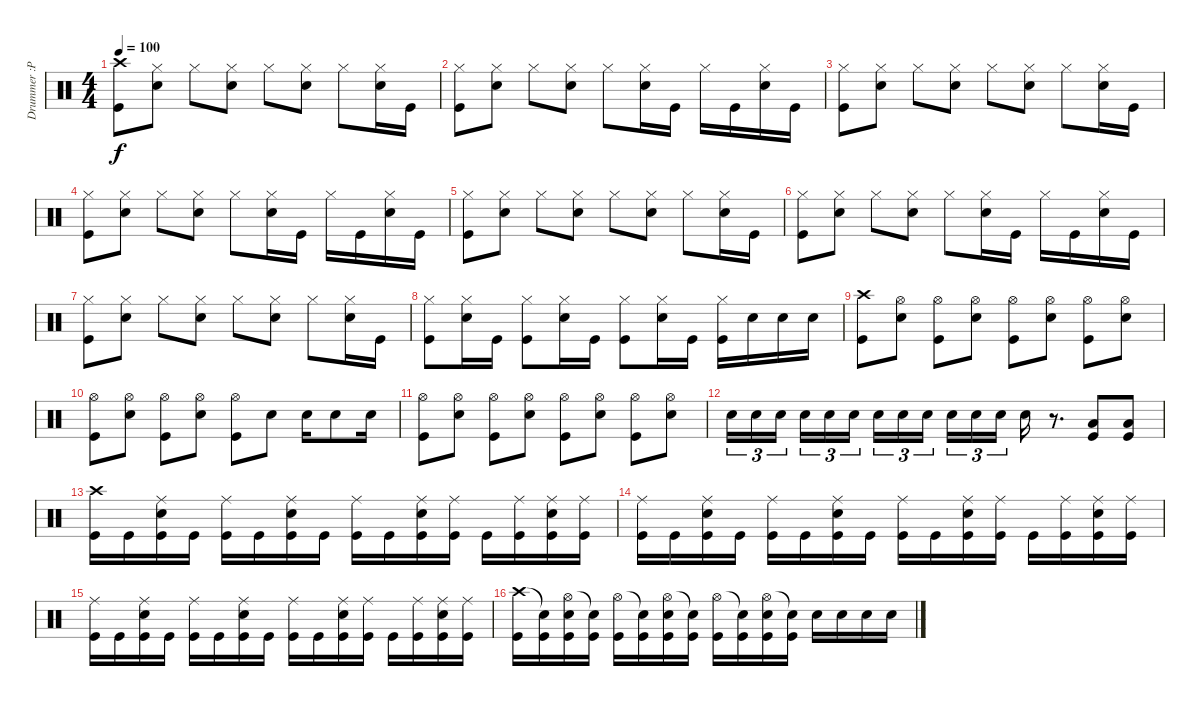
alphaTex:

\track ("Drummer :P" "Drummer :P") {instrument percussion}
\staff {score}
\articulation defaults
\ts (4 4)
\tempo 100
\clef neutral
\ks c
("Crash high (hit)" "Kick (hit)").8{dy f} ("Hi-Hat (closed)" "Electric Snare (hit)").8 "Hi-Hat (closed)".8 ("Hi-Hat (closed)" "Electric Snare (hit)").8 "Hi-Hat (closed)".8 ("Hi-Hat (closed)" "Electric Snare (hit)").8 "Hi-Hat (closed)".8 ("Hi-Hat (closed)" "Electric Snare (hit)").16 "Kick (hit)".16 |
("Hi-Hat (closed)" "Kick (hit)").8 ("Hi-Hat (closed)" "Electric Snare (hit)").8 "Hi-Hat (closed)".8 ("Hi-Hat (closed)" "Electric Snare (hit)").8 "Hi-Hat (closed)".8 ("Hi-Hat (closed)" "Electric Snare (hit)").16 "Kick (hit)".16 "Hi-Hat (closed)".16 "Kick (hit)".16 ("Hi-Hat (closed)" "Electric Snare (hit)").16 "Kick (hit)".16 |
("Hi-Hat (closed)" "Kick (hit)").8 ("Hi-Hat (closed)" "Electric Snare (hit)").8 "Hi-Hat (closed)".8 ("Hi-Hat (closed)" "Electric Snare (hit)").8 "Hi-Hat (closed)".8 ("Hi-Hat (closed)" "Electric Snare (hit)").8 "Hi-Hat (closed)".8 ("Hi-Hat (closed)" "Electric Snare (hit)").16 "Kick (hit)".16 |
("Hi-Hat (closed)" "Kick (hit)").8 ("Hi-Hat (closed)" "Electric Snare (hit)").8 "Hi-Hat (closed)".8 ("Hi-Hat (closed)" "Electric Snare (hit)").8 "Hi-Hat (closed)".8 ("Hi-Hat (closed)" "Electric Snare (hit)").16 "Kick (hit)".16 "Hi-Hat (closed)".16 "Kick (hit)".16 ("Hi-Hat (closed)" "Electric Snare (hit)").16 "Kick (hit)".16 |
("Hi-Hat (closed)" "Kick (hit)").8 ("Hi-Hat (closed)" "Electric Snare (hit)").8 "Hi-Hat (closed)".8 ("Hi-Hat (closed)" "Electric Snare (hit)").8 "Hi-Hat (closed)".8 ("Hi-Hat (closed)" "Electric Snare (hit)").8 "Hi-Hat (closed)".8 ("Hi-Hat (closed)" "Electric Snare (hit)").16 "Kick (hit)".16 |
("Hi-Hat (closed)" "Kick (hit)").8 ("Hi-Hat (closed)" "Electric Snare (hit)").8 "Hi-Hat (closed)".8 ("Hi-Hat (closed)" "Electric Snare (hit)").8 "Hi-Hat (closed)".8 ("Hi-Hat (closed)" "Electric Snare (hit)").16 "Kick (hit)".16 "Hi-Hat (closed)".16 "Kick (hit)".16 ("Hi-Hat (closed)" "Electric Snare (hit)").16 "Kick (hit)".16 |
("Hi-Hat (closed)" "Kick (hit)").8 ("Hi-Hat (closed)" "Electric Snare (hit)").8 "Hi-Hat (closed)".8 ("Hi-Hat (closed)" "Electric Snare (hit)").8 "Hi-Hat (closed)".8 ("Hi-Hat (closed)" "Electric Snare (hit)").8 "Hi-Hat (closed)".8 ("Hi-Hat (closed)" "Electric Snare (hit)").16 "Kick (hit)".16 |
("Hi-Hat (closed)" "Kick (hit)").8 ("Hi-Hat (closed)" "Electric Snare (hit)").16 "Kick (hit)".16 ("Hi-Hat (closed)" "Kick (hit)").8 ("Hi-Hat (closed)" "Electric Snare (hit)").16 "Kick (hit)".16 ("Hi-Hat (closed)" "Kick (hit)").8 ("Hi-Hat (closed)" "Electric Snare (hit)").16 "Kick (hit)".16 ("Hi-Hat (closed)" "Kick (hit)").16 "Electric Snare (hit)".16 "Electric Snare (hit)".16 "Electric Snare (hit)".16 |
("Crash high (hit)" "Kick (hit)").8 ("Hi-Hat (open)" "Electric Snare (hit)").8 ("Hi-Hat (open)" "Kick (hit)").8 ("Hi-Hat (open)" "Electric Snare (hit)").8 ("Hi-Hat (open)" "Kick (hit)").8 ("Hi-Hat (open)" "Electric Snare (hit)").8 ("Hi-Hat (open)" "Kick (hit)").8 ("Hi-Hat (open)" "Electric Snare (hit)").8 |
("Hi-Hat (open)" "Kick (hit)").8 ("Hi-Hat (open)" "Electric Snare (hit)").8 ("Hi-Hat (open)" "Kick (hit)").8 ("Hi-Hat (open)" "Electric Snare (hit)").8 ("Hi-Hat (open)" "Kick (hit)").8 "Electric Snare (hit)".8 "Electric Snare (hit)".16 "Electric Snare (hit)".8 "Electric Snare (hit)".16 |
("Hi-Hat (open)" "Kick (hit)").8 ("Hi-Hat (open)" "Electric Snare (hit)").8 ("Hi-Hat (open)" "Kick (hit)").8 ("Hi-Hat (open)" "Electric Snare (hit)").8 ("Hi-Hat (open)" "Kick (hit)").8 ("Hi-Hat (open)" "Electric Snare (hit)").8 ("Hi-Hat (open)" "Kick (hit)").8 ("Hi-Hat (open)" "Electric Snare (hit)").8 |
"Electric Snare (hit)".16{tu (3 2)} "Electric Snare (hit)".16{tu (3 2)} "Electric Snare (hit)".16{tu (3 2)} "Electric Snare (hit)".16{tu (3 2)} "Electric Snare (hit)".16{tu (3 2)} "Electric Snare (hit)".16{tu (3 2)} "Electric Snare (hit)".16{tu (3 2)} "Electric Snare (hit)".16{tu (3 2)} "Electric Snare (hit)".16{tu (3 2)} "Electric Snare (hit)".16{tu (3 2)} "Electric Snare (hit)".16{tu (3 2)} "Electric Snare (hit)".16{tu (3 2)} "Electric Snare (hit)".16 r.8{d} ("Low Tom (hit)" "Kick (hit)").8 ("Low Floor Tom (hit)" "Kick (hit)").8 |
("Crash high (hit)" "Kick (hit)").16 "Kick (hit)".16 ("Ride (middle)" "Electric Snare (hit)" "Kick (hit)").16 "Kick (hit)".16 ("Ride (middle)" "Kick (hit)").16 "Kick (hit)".16 ("Ride (middle)" "Electric Snare (hit)" "Kick (hit)").16 "Kick (hit)".16 ("Ride (middle)" "Kick (hit)").16 "Kick (hit)".16 ("Ride (middle)" "Electric Snare (hit)" "Kick (hit)").16 ("Ride (middle)" "Kick (hit)").16 "Kick (hit)".16 ("Ride (middle)" "Kick (hit)").16 ("Ride (middle)" "Electric Snare (hit)" "Kick (hit)").16 ("Ride (middle)" "Kick (hit)").16 |
("Ride (middle)" "Kick (hit)").16 "Kick (hit)".16 ("Ride (middle)" "Electric Snare (hit)" "Kick (hit)").16 "Kick (hit)".16 ("Ride (middle)" "Kick (hit)").16 "Kick (hit)".16 ("Ride (middle)" "Electric Snare (hit)" "Kick (hit)").16 "Kick (hit)".16 ("Ride (middle)" "Kick (hit)").16 "Kick (hit)".16 ("Ride (middle)" "Electric Snare (hit)" "Kick (hit)").16 ("Ride (middle)" "Kick (hit)").16 "Kick (hit)".16 ("Ride (middle)" "Kick (hit)").16 ("Ride (middle)" "Electric Snare (hit)" "Kick (hit)").16 ("Ride (middle)" "Kick (hit)").16 |
("Ride (middle)" "Kick (hit)").16 "Kick (hit)".16 ("Ride (middle)" "Electric Snare (hit)" "Kick (hit)").16 "Kick (hit)".16 ("Ride (middle)" "Kick (hit)").16 "Kick (hit)".16 ("Ride (middle)" "Electric Snare (hit)" "Kick (hit)").16 "Kick (hit)".16 ("Ride (middle)" "Kick (hit)").16 "Kick (hit)".16 ("Ride (middle)" "Electric Snare (hit)" "Kick (hit)").16 ("Ride (middle)" "Kick (hit)").16 "Kick (hit)".16 ("Ride (middle)" "Kick (hit)").16 ("Ride (middle)" "Electric Snare (hit)" "Kick (hit)").16 ("Ride (middle)" "Kick (hit)").16 |
("Crash high (hit)" "Kick (hit)").16 ("Snare (hit)"{t} "Kick (hit)").16 ("Hi-Hat (open)" "Electric Snare (hit)" "Kick (hit)").16 ("Snare (hit)"{t} "Kick (hit)").16 ("Hi-Hat (open)" "Kick (hit)").16 ("Snare (hit)"{t} "Kick (hit)").16 ("Hi-Hat (open)" "Electric Snare (hit)" "Kick (hit)").16 ("Snare (hit)"{t} "Kick (hit)").16 ("Hi-Hat (open)" "Kick (hit)").16 ("Snare (hit)"{t} "Kick (hit)").16 ("Hi-Hat (open)" "Electric Snare (hit)" "Kick (hit)").16 ("Snare (hit)"{t} "Kick (hit)").16 "Electric Snare (hit)".16 "Electric Snare (hit)".16 "Electric Snare (hit)".16 "Electric Snare (hit)".16
